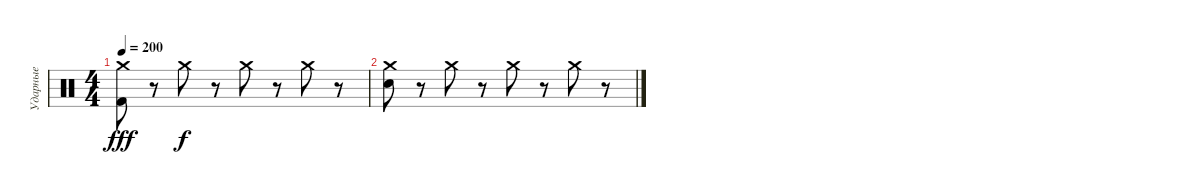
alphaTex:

\track ("Ударные" "Ударные") {instrument percussion}
\staff {score}
\articulation defaults
\ts (4 4)
\tempo 200
\clef neutral
\ks c
("Crash medium (hit)" "Kick (hit) 2").8{dy fff} r.8 "Crash medium (hit)".8{dy f} r.8 "Crash medium (hit)".8 r.8 "Crash medium (hit)".8 r.8 |
("Crash medium (hit)" "Electric Snare (hit)").8 r.8 "Crash medium (hit)".8 r.8 "Crash medium (hit)".8 r.8 "Crash medium (hit)".8 r.8
